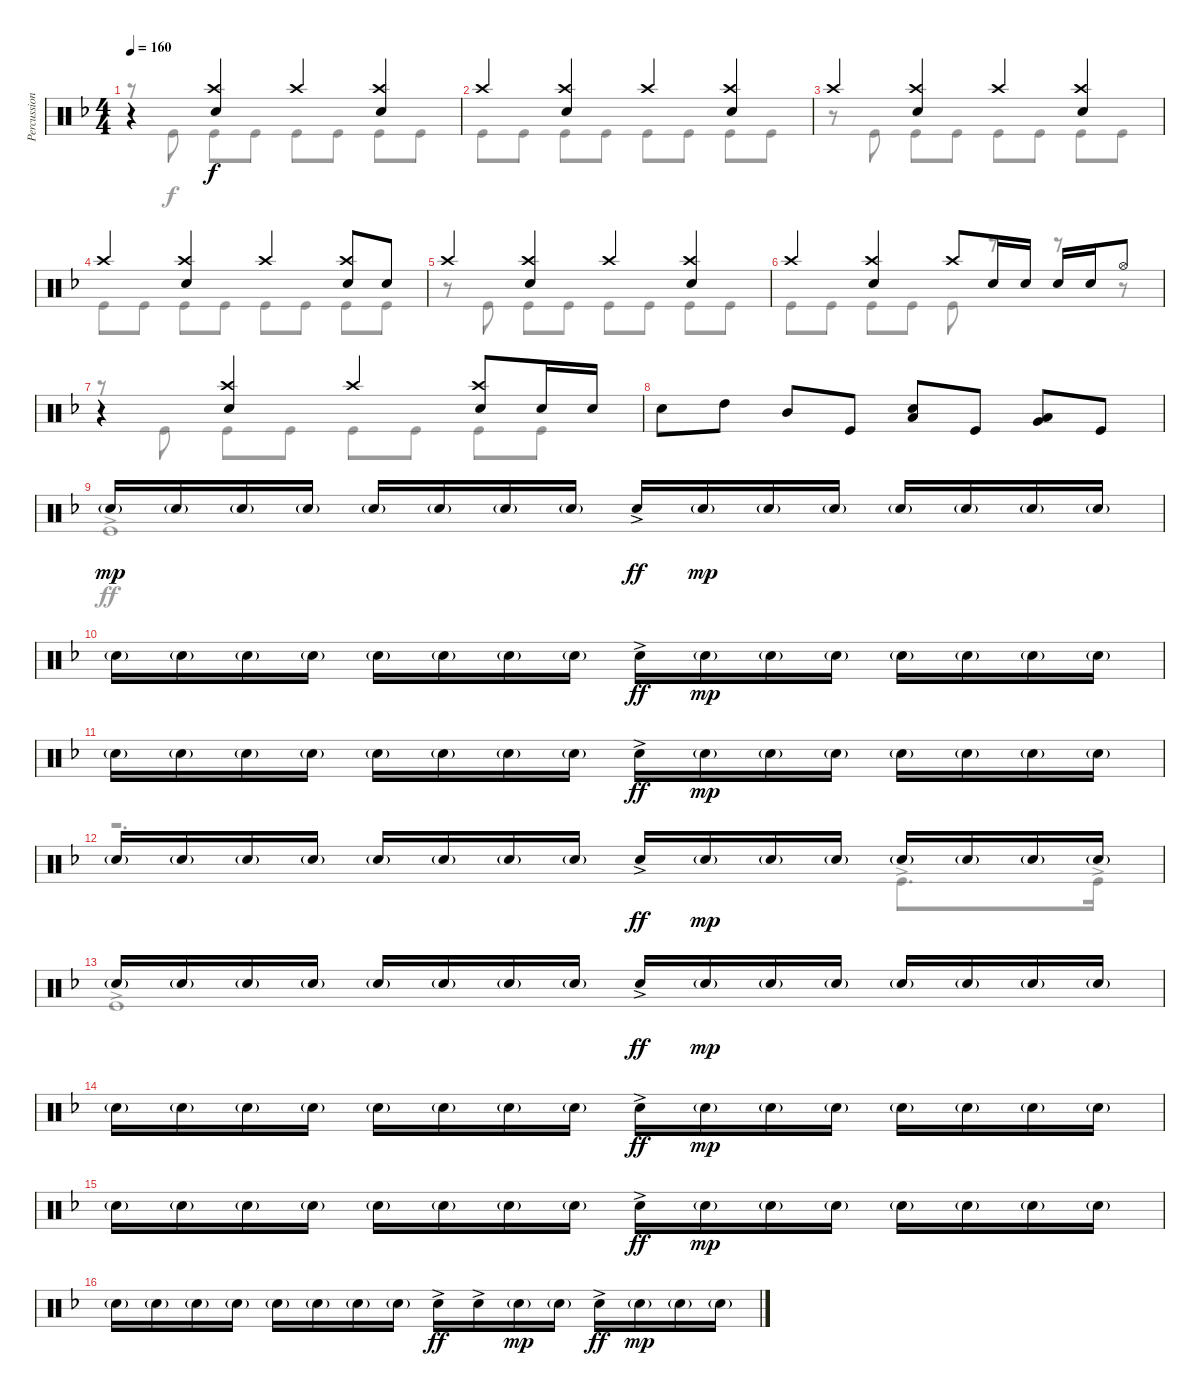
\track ("Percussion" "Percussion") {instrument percussion}
\staff {score}
\articulation defaults
\voice
\ts (4 4)
\tempo 160
\clef neutral
\ks dminor
r.4{dy f} ("Crash high (hit)" "Snare (hit) 2").4 "Crash high (hit)".4 ("Crash high (hit)" "Snare (hit) 2").4 |
"Crash high (hit)".4 ("Crash high (hit)" "Snare (hit) 2").4 "Crash high (hit)".4 ("Crash high (hit)" "Snare (hit) 2").4 |
"Crash high (hit)".4 ("Crash high (hit)" "Snare (hit) 2").4 "Crash high (hit)".4 ("Crash high (hit)" "Snare (hit) 2").4 |
"Crash high (hit)".4 ("Crash high (hit)" "Snare (hit) 2").4 "Crash high (hit)".4 ("Crash high (hit)" "Snare (hit) 2").8 "Snare (hit) 2".8 |
"Crash high (hit)".4 ("Crash high (hit)" "Snare (hit) 2").4 "Crash high (hit)".4 ("Crash high (hit)" "Snare (hit) 2").4 |
"Crash high (hit)".4 ("Crash high (hit)" "Snare (hit) 2").4 "Crash high (hit)".8 "Snare (hit) 2".16 "Snare (hit) 2".16 "Snare (hit) 2".16 "Snare (hit) 2".16 "Hi-Hat (open)".8 |
r.4 ("Crash high (hit)" "Snare (hit) 2").4 "Crash high (hit)".4 ("Crash high (hit)" "Snare (hit) 2").8 "Snare (hit) 2".16 "Snare (hit) 2".16 |
"Snare (hit) 2".8 "High Tom (hit)".8 "Mid Tom (hit)".8 "Kick (hit)".8 ("Snare (hit) 2" "Low Tom (hit)").8 "Kick (hit)".8 ("Low Tom (hit)" "Very Low Tom (hit)").8 "Kick (hit)".8 |
"Snare (hit) 2"{g}.16{dy mp} "Snare (hit) 2"{g}.16 "Snare (hit) 2"{g}.16 "Snare (hit) 2"{g}.16 "Snare (hit) 2"{g}.16 "Snare (hit) 2"{g}.16 "Snare (hit) 2"{g}.16 "Snare (hit) 2"{g}.16 "Snare (hit) 2"{ac}.16{dy ff} "Snare (hit) 2"{g}.16{dy mp} "Snare (hit) 2"{g}.16 "Snare (hit) 2"{g}.16 "Snare (hit) 2"{g}.16 "Snare (hit) 2"{g}.16 "Snare (hit) 2"{g}.16 "Snare (hit) 2"{g}.16 |
"Snare (hit) 2"{g}.16 "Snare (hit) 2"{g}.16 "Snare (hit) 2"{g}.16 "Snare (hit) 2"{g}.16 "Snare (hit) 2"{g}.16 "Snare (hit) 2"{g}.16 "Snare (hit) 2"{g}.16 "Snare (hit) 2"{g}.16 "Snare (hit) 2"{ac}.16{dy ff} "Snare (hit) 2"{g}.16{dy mp} "Snare (hit) 2"{g}.16 "Snare (hit) 2"{g}.16 "Snare (hit) 2"{g}.16 "Snare (hit) 2"{g}.16 "Snare (hit) 2"{g}.16 "Snare (hit) 2"{g}.16 |
"Snare (hit) 2"{g}.16 "Snare (hit) 2"{g}.16 "Snare (hit) 2"{g}.16 "Snare (hit) 2"{g}.16 "Snare (hit) 2"{g}.16 "Snare (hit) 2"{g}.16 "Snare (hit) 2"{g}.16 "Snare (hit) 2"{g}.16 "Snare (hit) 2"{ac}.16{dy ff} "Snare (hit) 2"{g}.16{dy mp} "Snare (hit) 2"{g}.16 "Snare (hit) 2"{g}.16 "Snare (hit) 2"{g}.16 "Snare (hit) 2"{g}.16 "Snare (hit) 2"{g}.16 "Snare (hit) 2"{g}.16 |
"Snare (hit) 2"{g}.16 "Snare (hit) 2"{g}.16 "Snare (hit) 2"{g}.16 "Snare (hit) 2"{g}.16 "Snare (hit) 2"{g}.16 "Snare (hit) 2"{g}.16 "Snare (hit) 2"{g}.16 "Snare (hit) 2"{g}.16 "Snare (hit) 2"{ac}.16{dy ff} "Snare (hit) 2"{g}.16{dy mp} "Snare (hit) 2"{g}.16 "Snare (hit) 2"{g}.16 "Snare (hit) 2"{g}.16 "Snare (hit) 2"{g}.16 "Snare (hit) 2"{g}.16 "Snare (hit) 2"{g}.16 |
"Snare (hit) 2"{g}.16 "Snare (hit) 2"{g}.16 "Snare (hit) 2"{g}.16 "Snare (hit) 2"{g}.16 "Snare (hit) 2"{g}.16 "Snare (hit) 2"{g}.16 "Snare (hit) 2"{g}.16 "Snare (hit) 2"{g}.16 "Snare (hit) 2"{ac}.16{dy ff} "Snare (hit) 2"{g}.16{dy mp} "Snare (hit) 2"{g}.16 "Snare (hit) 2"{g}.16 "Snare (hit) 2"{g}.16 "Snare (hit) 2"{g}.16 "Snare (hit) 2"{g}.16 "Snare (hit) 2"{g}.16 |
"Snare (hit) 2"{g}.16 "Snare (hit) 2"{g}.16 "Snare (hit) 2"{g}.16 "Snare (hit) 2"{g}.16 "Snare (hit) 2"{g}.16 "Snare (hit) 2"{g}.16 "Snare (hit) 2"{g}.16 "Snare (hit) 2"{g}.16 "Snare (hit) 2"{ac}.16{dy ff} "Snare (hit) 2"{g}.16{dy mp} "Snare (hit) 2"{g}.16 "Snare (hit) 2"{g}.16 "Snare (hit) 2"{g}.16 "Snare (hit) 2"{g}.16 "Snare (hit) 2"{g}.16 "Snare (hit) 2"{g}.16 |
"Snare (hit) 2"{g}.16 "Snare (hit) 2"{g}.16 "Snare (hit) 2"{g}.16 "Snare (hit) 2"{g}.16 "Snare (hit) 2"{g}.16 "Snare (hit) 2"{g}.16 "Snare (hit) 2"{g}.16 "Snare (hit) 2"{g}.16 "Snare (hit) 2"{ac}.16{dy ff} "Snare (hit) 2"{g}.16{dy mp} "Snare (hit) 2"{g}.16 "Snare (hit) 2"{g}.16 "Snare (hit) 2"{g}.16 "Snare (hit) 2"{g}.16 "Snare (hit) 2"{g}.16 "Snare (hit) 2"{g}.16 |
"Snare (hit) 2"{g}.16 "Snare (hit) 2"{g}.16 "Snare (hit) 2"{g}.16 "Snare (hit) 2"{g}.16 "Snare (hit) 2"{g}.16 "Snare (hit) 2"{g}.16 "Snare (hit) 2"{g}.16 "Snare (hit) 2"{g}.16 "Snare (hit) 2"{ac}.16{dy ff} "Snare (hit) 2"{ac}.16 "Snare (hit) 2"{g}.16{dy mp} "Snare (hit) 2"{g}.16 "Snare (hit) 2"{ac}.16{dy ff} "Snare (hit) 2"{g}.16{dy mp} "Snare (hit) 2"{g}.16 "Snare (hit) 2"{g}.16
\voice
\clef neutral
\ottava regular
\simile none
\ks dminor
r.8{dy f} "Kick (hit)".8 "Kick (hit)".8 "Kick (hit)".8 "Kick (hit)".8 "Kick (hit)".8 "Kick (hit)".8 "Kick (hit)".8 |
"Kick (hit)".8 "Kick (hit)".8 "Kick (hit)".8 "Kick (hit)".8 "Kick (hit)".8 "Kick (hit)".8 "Kick (hit)".8 "Kick (hit)".8 |
r.8 "Kick (hit)".8 "Kick (hit)".8 "Kick (hit)".8 "Kick (hit)".8 "Kick (hit)".8 "Kick (hit)".8 "Kick (hit)".8 |
"Kick (hit)".8 "Kick (hit)".8 "Kick (hit)".8 "Kick (hit)".8 "Kick (hit)".8 "Kick (hit)".8 "Kick (hit)".8 "Kick (hit)".8 |
r.8 "Kick (hit)".8 "Kick (hit)".8 "Kick (hit)".8 "Kick (hit)".8 "Kick (hit)".8 "Kick (hit)".8 "Kick (hit)".8 |
"Kick (hit)".8 "Kick (hit)".8 "Kick (hit)".8 "Kick (hit)".8 "Kick (hit)".8 r.8 r.8 r.8 |
r.8 "Kick (hit)".8 "Kick (hit)".8 "Kick (hit)".8 "Kick (hit)".8 "Kick (hit)".8 "Kick (hit)".8 "Kick (hit)".8 |
|
"Kick (hit)"{ac}.1{dy ff} |
|
|
r.2{d} "Kick (hit)"{ac}.8{d} "Kick (hit)"{ac}.16 |
"Kick (hit)"{ac}.1 |
|
|
